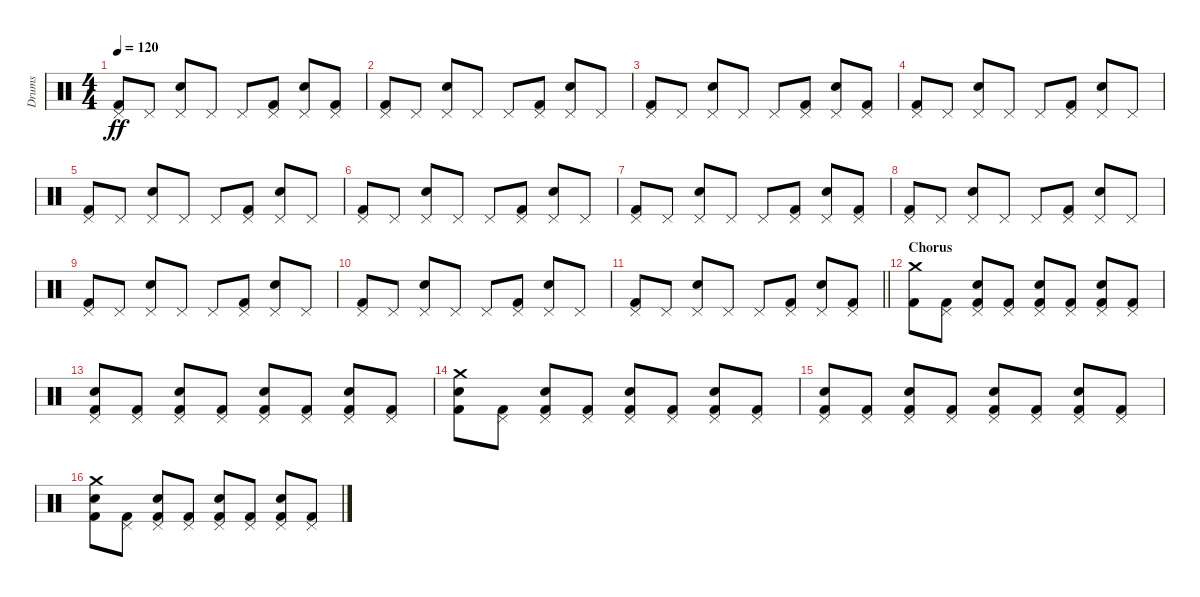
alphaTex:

\track ("Drums" "Drums") {instrument percussion}
\staff {score}
\articulation defaults
\ts (4 4)
\tempo 120
\clef neutral
\ks c
("Pedal Hi-Hat (hit)" "Kick (hit) 2").8{dy ff} "Pedal Hi-Hat (hit)".8 ("Pedal Hi-Hat (hit)" "Snare (hit) 2").8 "Pedal Hi-Hat (hit)".8 "Pedal Hi-Hat (hit)".8 ("Pedal Hi-Hat (hit)" "Kick (hit) 2").8 ("Pedal Hi-Hat (hit)" "Snare (hit) 2").8 ("Pedal Hi-Hat (hit)" "Kick (hit) 2").8 |
("Pedal Hi-Hat (hit)" "Kick (hit) 2").8 "Pedal Hi-Hat (hit)".8 ("Pedal Hi-Hat (hit)" "Snare (hit) 2").8 "Pedal Hi-Hat (hit)".8 "Pedal Hi-Hat (hit)".8 ("Pedal Hi-Hat (hit)" "Kick (hit) 2").8 ("Pedal Hi-Hat (hit)" "Snare (hit) 2").8 "Pedal Hi-Hat (hit)".8 |
("Pedal Hi-Hat (hit)" "Kick (hit) 2").8 "Pedal Hi-Hat (hit)".8 ("Pedal Hi-Hat (hit)" "Snare (hit) 2").8 "Pedal Hi-Hat (hit)".8 "Pedal Hi-Hat (hit)".8 ("Pedal Hi-Hat (hit)" "Kick (hit) 2").8 ("Pedal Hi-Hat (hit)" "Snare (hit) 2").8 ("Pedal Hi-Hat (hit)" "Kick (hit) 2").8 |
("Pedal Hi-Hat (hit)" "Kick (hit) 2").8 "Pedal Hi-Hat (hit)".8 ("Pedal Hi-Hat (hit)" "Snare (hit) 2").8 "Pedal Hi-Hat (hit)".8 "Pedal Hi-Hat (hit)".8 ("Pedal Hi-Hat (hit)" "Kick (hit) 2").8 ("Pedal Hi-Hat (hit)" "Snare (hit) 2").8 "Pedal Hi-Hat (hit)".8 |
("Pedal Hi-Hat (hit)" "Kick (hit) 2").8 "Pedal Hi-Hat (hit)".8 ("Pedal Hi-Hat (hit)" "Snare (hit) 2").8 "Pedal Hi-Hat (hit)".8 "Pedal Hi-Hat (hit)".8 ("Pedal Hi-Hat (hit)" "Kick (hit) 2").8 ("Pedal Hi-Hat (hit)" "Snare (hit) 2").8 "Pedal Hi-Hat (hit)".8 |
("Pedal Hi-Hat (hit)" "Kick (hit) 2").8 "Pedal Hi-Hat (hit)".8 ("Pedal Hi-Hat (hit)" "Snare (hit) 2").8 "Pedal Hi-Hat (hit)".8 "Pedal Hi-Hat (hit)".8 ("Pedal Hi-Hat (hit)" "Kick (hit) 2").8 ("Pedal Hi-Hat (hit)" "Snare (hit) 2").8 "Pedal Hi-Hat (hit)".8 |
("Pedal Hi-Hat (hit)" "Kick (hit) 2").8 "Pedal Hi-Hat (hit)".8 ("Pedal Hi-Hat (hit)" "Snare (hit) 2").8 "Pedal Hi-Hat (hit)".8 "Pedal Hi-Hat (hit)".8 ("Pedal Hi-Hat (hit)" "Kick (hit) 2").8 ("Pedal Hi-Hat (hit)" "Snare (hit) 2").8 ("Pedal Hi-Hat (hit)" "Kick (hit) 2").8 |
("Pedal Hi-Hat (hit)" "Kick (hit) 2").8 "Pedal Hi-Hat (hit)".8 ("Pedal Hi-Hat (hit)" "Snare (hit) 2").8 "Pedal Hi-Hat (hit)".8 "Pedal Hi-Hat (hit)".8 ("Pedal Hi-Hat (hit)" "Kick (hit) 2").8 ("Pedal Hi-Hat (hit)" "Snare (hit) 2").8 "Pedal Hi-Hat (hit)".8 |
("Pedal Hi-Hat (hit)" "Kick (hit) 2").8 "Pedal Hi-Hat (hit)".8 ("Pedal Hi-Hat (hit)" "Snare (hit) 2").8 "Pedal Hi-Hat (hit)".8 "Pedal Hi-Hat (hit)".8 ("Pedal Hi-Hat (hit)" "Kick (hit) 2").8 ("Pedal Hi-Hat (hit)" "Snare (hit) 2").8 "Pedal Hi-Hat (hit)".8 |
("Pedal Hi-Hat (hit)" "Kick (hit) 2").8 "Pedal Hi-Hat (hit)".8 ("Pedal Hi-Hat (hit)" "Snare (hit) 2").8 "Pedal Hi-Hat (hit)".8 "Pedal Hi-Hat (hit)".8 ("Pedal Hi-Hat (hit)" "Kick (hit) 2").8 ("Pedal Hi-Hat (hit)" "Snare (hit) 2").8 "Pedal Hi-Hat (hit)".8 |
\barLineRight lightlight
("Pedal Hi-Hat (hit)" "Kick (hit) 2").8 "Pedal Hi-Hat (hit)".8 ("Pedal Hi-Hat (hit)" "Snare (hit) 2").8 "Pedal Hi-Hat (hit)".8 "Pedal Hi-Hat (hit)".8 ("Pedal Hi-Hat (hit)" "Kick (hit) 2").8 ("Pedal Hi-Hat (hit)" "Snare (hit) 2").8 ("Pedal Hi-Hat (hit)" "Kick (hit) 2").8 |
\section ("" "Chorus")
("Crash medium (hit)" "Kick (hit) 2").8 ("Pedal Hi-Hat (hit)" "Kick (hit) 2").8 ("Pedal Hi-Hat (hit)" "Snare (hit) 2" "Kick (hit) 2").8 ("Pedal Hi-Hat (hit)" "Kick (hit) 2").8 ("Pedal Hi-Hat (hit)" "Snare (hit) 2" "Kick (hit) 2").8 ("Pedal Hi-Hat (hit)" "Kick (hit) 2").8 ("Pedal Hi-Hat (hit)" "Snare (hit) 2" "Kick (hit) 2").8 ("Pedal Hi-Hat (hit)" "Kick (hit) 2").8 |
("Pedal Hi-Hat (hit)" "Snare (hit) 2" "Kick (hit) 2").8 ("Pedal Hi-Hat (hit)" "Kick (hit) 2").8 ("Pedal Hi-Hat (hit)" "Snare (hit) 2" "Kick (hit) 2").8 ("Pedal Hi-Hat (hit)" "Kick (hit) 2").8 ("Pedal Hi-Hat (hit)" "Snare (hit) 2" "Kick (hit) 2").8 ("Pedal Hi-Hat (hit)" "Kick (hit) 2").8 ("Pedal Hi-Hat (hit)" "Snare (hit) 2" "Kick (hit) 2").8 ("Pedal Hi-Hat (hit)" "Kick (hit) 2").8 |
("Crash medium (hit)" "Snare (hit) 2" "Kick (hit) 2").8 ("Pedal Hi-Hat (hit)" "Kick (hit) 2").8 ("Pedal Hi-Hat (hit)" "Snare (hit) 2" "Kick (hit) 2").8 ("Pedal Hi-Hat (hit)" "Kick (hit) 2").8 ("Pedal Hi-Hat (hit)" "Snare (hit) 2" "Kick (hit) 2").8 ("Pedal Hi-Hat (hit)" "Kick (hit) 2").8 ("Pedal Hi-Hat (hit)" "Snare (hit) 2" "Kick (hit) 2").8 ("Pedal Hi-Hat (hit)" "Kick (hit) 2").8 |
("Pedal Hi-Hat (hit)" "Snare (hit) 2" "Kick (hit) 2").8 ("Pedal Hi-Hat (hit)" "Kick (hit) 2").8 ("Pedal Hi-Hat (hit)" "Snare (hit) 2" "Kick (hit) 2").8 ("Pedal Hi-Hat (hit)" "Kick (hit) 2").8 ("Pedal Hi-Hat (hit)" "Snare (hit) 2" "Kick (hit) 2").8 ("Pedal Hi-Hat (hit)" "Kick (hit) 2").8 ("Pedal Hi-Hat (hit)" "Snare (hit) 2" "Kick (hit) 2").8 ("Pedal Hi-Hat (hit)" "Kick (hit) 2").8 |
("Crash medium (hit)" "Snare (hit) 2" "Kick (hit) 2").8 ("Pedal Hi-Hat (hit)" "Kick (hit) 2").8 ("Pedal Hi-Hat (hit)" "Snare (hit) 2" "Kick (hit) 2").8 ("Pedal Hi-Hat (hit)" "Kick (hit) 2").8 ("Pedal Hi-Hat (hit)" "Snare (hit) 2" "Kick (hit) 2").8 ("Pedal Hi-Hat (hit)" "Kick (hit) 2").8 ("Pedal Hi-Hat (hit)" "Snare (hit) 2" "Kick (hit) 2").8 ("Pedal Hi-Hat (hit)" "Kick (hit) 2").8
